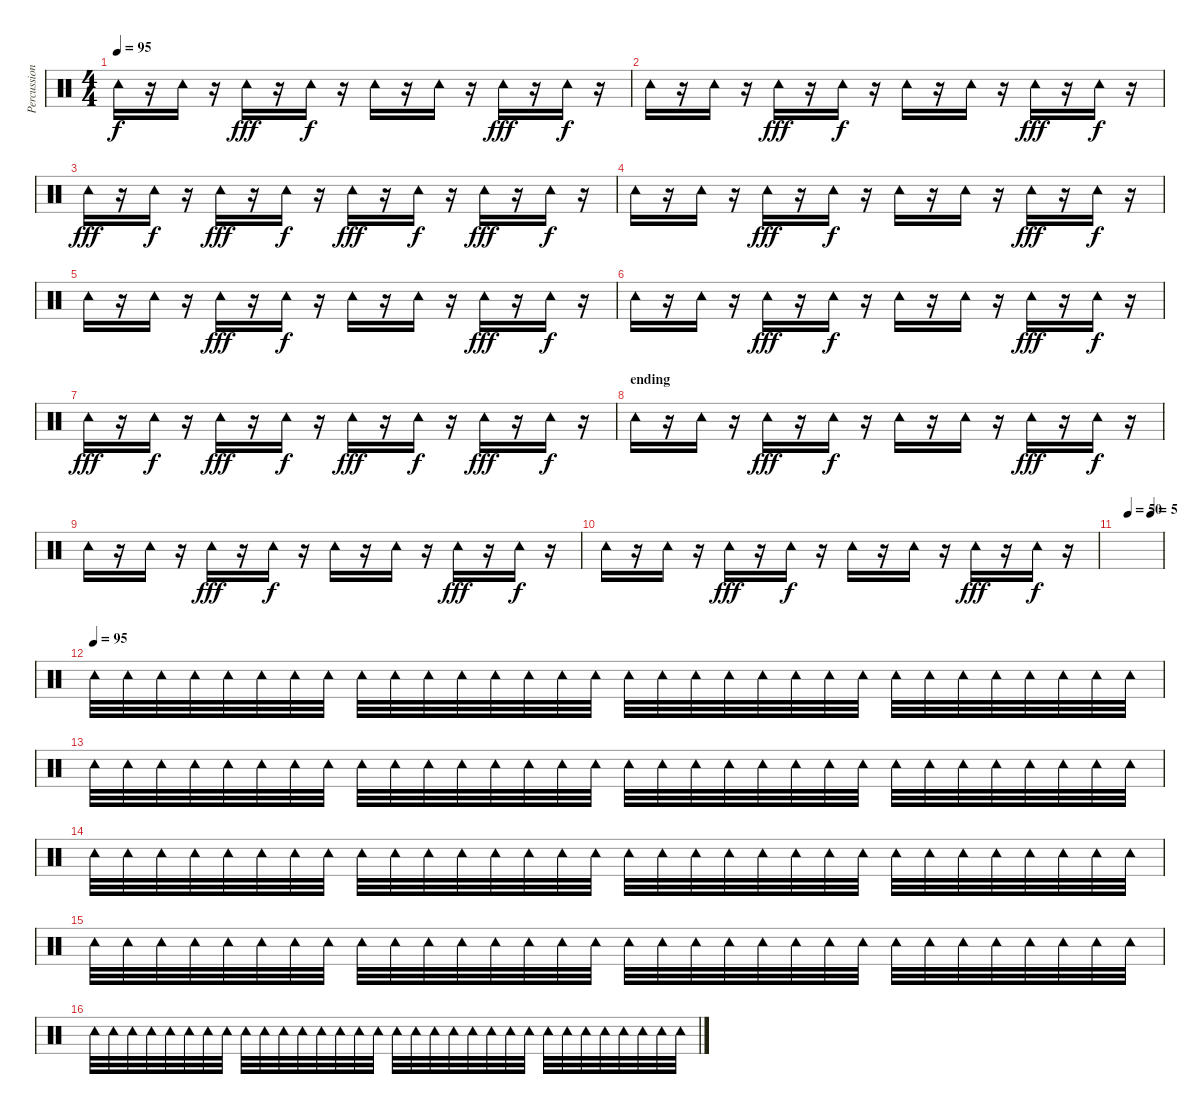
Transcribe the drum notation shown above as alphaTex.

\track ("Percussion" "Percussion") {instrument percussion}
\staff {score}
\articulation defaults
\ts (4 4)
\tempo 95
\clef neutral
\ks c "Tambourine (hit)".16{dy f}
r.16 "Tambourine (hit)".16 r.16 "Tambourine (hit)".16{dy fff} r.16 "Tambourine (hit)".16{dy f} r.16 "Tambourine (hit)".16 r.16 "Tambourine (hit)".16 r.16 "Tambourine (hit)".16{dy fff} r.16 "Tambourine (hit)".16{dy f} r.16 |
"Tambourine (hit)".16 r.16 "Tambourine (hit)".16 r.16 "Tambourine (hit)".16{dy fff} r.16 "Tambourine (hit)".16{dy f} r.16 "Tambourine (hit)".16 r.16 "Tambourine (hit)".16 r.16 "Tambourine (hit)".16{dy fff} r.16 "Tambourine (hit)".16{dy f} r.16 |
"Tambourine (hit)".16{dy fff} r.16 "Tambourine (hit)".16{dy f} r.16 "Tambourine (hit)".16{dy fff} r.16 "Tambourine (hit)".16{dy f} r.16 "Tambourine (hit)".16{dy fff} r.16 "Tambourine (hit)".16{dy f} r.16 "Tambourine (hit)".16{dy fff} r.16 "Tambourine (hit)".16{dy f} r.16 |
"Tambourine (hit)".16 r.16 "Tambourine (hit)".16 r.16 "Tambourine (hit)".16{dy fff} r.16 "Tambourine (hit)".16{dy f} r.16 "Tambourine (hit)".16 r.16 "Tambourine (hit)".16 r.16 "Tambourine (hit)".16{dy fff} r.16 "Tambourine (hit)".16{dy f} r.16 |
"Tambourine (hit)".16 r.16 "Tambourine (hit)".16 r.16 "Tambourine (hit)".16{dy fff} r.16 "Tambourine (hit)".16{dy f} r.16 "Tambourine (hit)".16 r.16 "Tambourine (hit)".16 r.16 "Tambourine (hit)".16{dy fff} r.16 "Tambourine (hit)".16{dy f} r.16 |
"Tambourine (hit)".16 r.16 "Tambourine (hit)".16 r.16 "Tambourine (hit)".16{dy fff} r.16 "Tambourine (hit)".16{dy f} r.16 "Tambourine (hit)".16 r.16 "Tambourine (hit)".16 r.16 "Tambourine (hit)".16{dy fff} r.16 "Tambourine (hit)".16{dy f} r.16 |
"Tambourine (hit)".16{dy fff} r.16 "Tambourine (hit)".16{dy f} r.16 "Tambourine (hit)".16{dy fff} r.16 "Tambourine (hit)".16{dy f} r.16 "Tambourine (hit)".16{dy fff} r.16 "Tambourine (hit)".16{dy f} r.16 "Tambourine (hit)".16{dy fff} r.16 "Tambourine (hit)".16{dy f} r.16 |
\section ("" "ending")
"Tambourine (hit)".16 r.16 "Tambourine (hit)".16 r.16 "Tambourine (hit)".16{dy fff} r.16 "Tambourine (hit)".16{dy f} r.16 "Tambourine (hit)".16 r.16 "Tambourine (hit)".16 r.16 "Tambourine (hit)".16{dy fff} r.16 "Tambourine (hit)".16{dy f} r.16 |
"Tambourine (hit)".16 r.16 "Tambourine (hit)".16 r.16 "Tambourine (hit)".16{dy fff} r.16 "Tambourine (hit)".16{dy f} r.16 "Tambourine (hit)".16 r.16 "Tambourine (hit)".16 r.16 "Tambourine (hit)".16{dy fff} r.16 "Tambourine (hit)".16{dy f} r.16 |
"Tambourine (hit)".16 r.16 "Tambourine (hit)".16 r.16 "Tambourine (hit)".16{dy fff} r.16 "Tambourine (hit)".16{dy f} r.16 "Tambourine (hit)".16 r.16 "Tambourine (hit)".16 r.16 "Tambourine (hit)".16{dy fff} r.16 "Tambourine (hit)".16{dy f} r.16 |
\tempo (50 0.25)
\tempo (5 0.75)
|
\tempo (95)
"Tambourine (hit)".32 "Tambourine (hit)".32 "Tambourine (hit)".32 "Tambourine (hit)".32 "Tambourine (hit)".32 "Tambourine (hit)".32 "Tambourine (hit)".32 "Tambourine (hit)".32 "Tambourine (hit)".32 "Tambourine (hit)".32 "Tambourine (hit)".32 "Tambourine (hit)".32 "Tambourine (hit)".32 "Tambourine (hit)".32 "Tambourine (hit)".32 "Tambourine (hit)".32 "Tambourine (hit)".32 "Tambourine (hit)".32 "Tambourine (hit)".32 "Tambourine (hit)".32 "Tambourine (hit)".32 "Tambourine (hit)".32 "Tambourine (hit)".32 "Tambourine (hit)".32 "Tambourine (hit)".32 "Tambourine (hit)".32 "Tambourine (hit)".32 "Tambourine (hit)".32 "Tambourine (hit)".32 "Tambourine (hit)".32 "Tambourine (hit)".32 "Tambourine (hit)".32 |
"Tambourine (hit)".32 "Tambourine (hit)".32 "Tambourine (hit)".32 "Tambourine (hit)".32 "Tambourine (hit)".32 "Tambourine (hit)".32 "Tambourine (hit)".32 "Tambourine (hit)".32 "Tambourine (hit)".32 "Tambourine (hit)".32 "Tambourine (hit)".32 "Tambourine (hit)".32 "Tambourine (hit)".32 "Tambourine (hit)".32 "Tambourine (hit)".32 "Tambourine (hit)".32 "Tambourine (hit)".32 "Tambourine (hit)".32 "Tambourine (hit)".32 "Tambourine (hit)".32 "Tambourine (hit)".32 "Tambourine (hit)".32 "Tambourine (hit)".32 "Tambourine (hit)".32 "Tambourine (hit)".32 "Tambourine (hit)".32 "Tambourine (hit)".32 "Tambourine (hit)".32 "Tambourine (hit)".32 "Tambourine (hit)".32 "Tambourine (hit)".32 "Tambourine (hit)".32 |
"Tambourine (hit)".32 "Tambourine (hit)".32 "Tambourine (hit)".32 "Tambourine (hit)".32 "Tambourine (hit)".32 "Tambourine (hit)".32 "Tambourine (hit)".32 "Tambourine (hit)".32 "Tambourine (hit)".32 "Tambourine (hit)".32 "Tambourine (hit)".32 "Tambourine (hit)".32 "Tambourine (hit)".32 "Tambourine (hit)".32 "Tambourine (hit)".32 "Tambourine (hit)".32 "Tambourine (hit)".32 "Tambourine (hit)".32 "Tambourine (hit)".32 "Tambourine (hit)".32 "Tambourine (hit)".32 "Tambourine (hit)".32 "Tambourine (hit)".32 "Tambourine (hit)".32 "Tambourine (hit)".32 "Tambourine (hit)".32 "Tambourine (hit)".32 "Tambourine (hit)".32 "Tambourine (hit)".32 "Tambourine (hit)".32 "Tambourine (hit)".32 "Tambourine (hit)".32 |
"Tambourine (hit)".32 "Tambourine (hit)".32 "Tambourine (hit)".32 "Tambourine (hit)".32 "Tambourine (hit)".32 "Tambourine (hit)".32 "Tambourine (hit)".32 "Tambourine (hit)".32 "Tambourine (hit)".32 "Tambourine (hit)".32 "Tambourine (hit)".32 "Tambourine (hit)".32 "Tambourine (hit)".32 "Tambourine (hit)".32 "Tambourine (hit)".32 "Tambourine (hit)".32 "Tambourine (hit)".32 "Tambourine (hit)".32 "Tambourine (hit)".32 "Tambourine (hit)".32 "Tambourine (hit)".32 "Tambourine (hit)".32 "Tambourine (hit)".32 "Tambourine (hit)".32 "Tambourine (hit)".32 "Tambourine (hit)".32 "Tambourine (hit)".32 "Tambourine (hit)".32 "Tambourine (hit)".32 "Tambourine (hit)".32 "Tambourine (hit)".32 "Tambourine (hit)".32 |
"Tambourine (hit)".32 "Tambourine (hit)".32 "Tambourine (hit)".32 "Tambourine (hit)".32 "Tambourine (hit)".32 "Tambourine (hit)".32 "Tambourine (hit)".32 "Tambourine (hit)".32 "Tambourine (hit)".32 "Tambourine (hit)".32 "Tambourine (hit)".32 "Tambourine (hit)".32 "Tambourine (hit)".32 "Tambourine (hit)".32 "Tambourine (hit)".32 "Tambourine (hit)".32 "Tambourine (hit)".32{volume 0} "Tambourine (hit)".32 "Tambourine (hit)".32 "Tambourine (hit)".32 "Tambourine (hit)".32 "Tambourine (hit)".32 "Tambourine (hit)".32 "Tambourine (hit)".32 "Tambourine (hit)".32 "Tambourine (hit)".32 "Tambourine (hit)".32 "Tambourine (hit)".32 "Tambourine (hit)".32 "Tambourine (hit)".32 "Tambourine (hit)".32 "Tambourine (hit)".32
